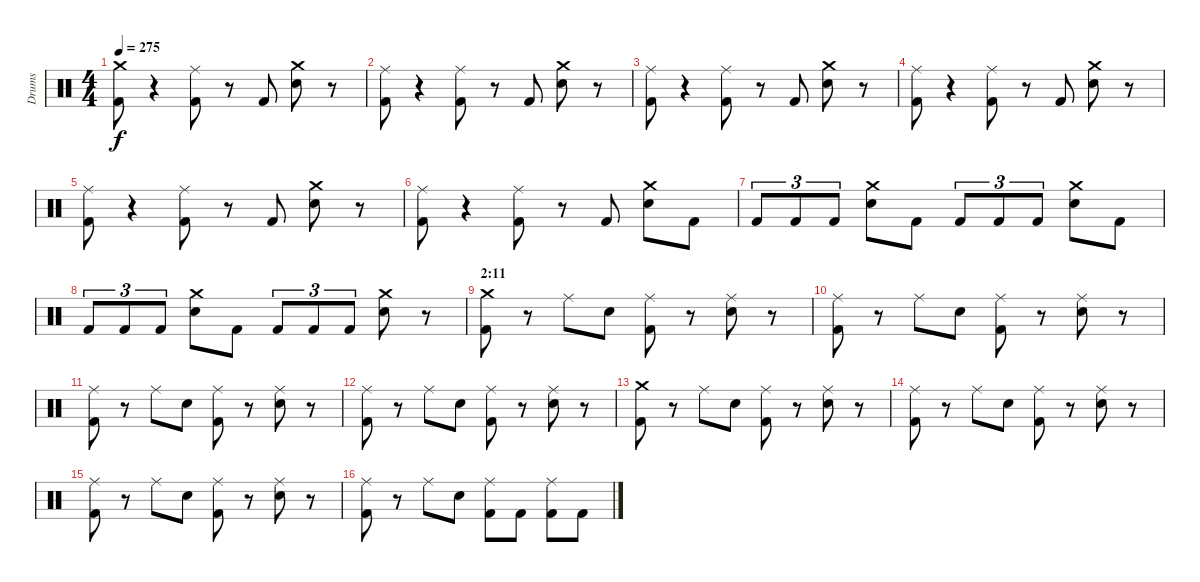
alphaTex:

\track ("Drums" "Drums") {instrument percussion}
\staff {score}
\articulation defaults
\ts (4 4)
\tempo 275
\clef neutral
\ks c
("Crash medium (hit)" "Kick (hit) 2").8{dy f} r.4 ("Ride (middle)" "Kick (hit) 2").8 r.8 "Kick (hit) 2".8 ("Crash medium (hit)" "Electric Snare (hit)").8 r.8 |
("Ride (middle)" "Kick (hit) 2").8 r.4 ("Ride (middle)" "Kick (hit) 2").8 r.8 "Kick (hit) 2".8 ("Crash medium (hit)" "Electric Snare (hit)").8 r.8 |
("Ride (middle)" "Kick (hit) 2").8 r.4 ("Ride (middle)" "Kick (hit) 2").8 r.8 "Kick (hit) 2".8 ("Crash medium (hit)" "Electric Snare (hit)").8 r.8 |
("Ride (middle)" "Kick (hit) 2").8 r.4 ("Ride (middle)" "Kick (hit) 2").8 r.8 "Kick (hit) 2".8 ("Crash medium (hit)" "Electric Snare (hit)").8 r.8 |
("Ride (middle)" "Kick (hit) 2").8 r.4 ("Ride (middle)" "Kick (hit) 2").8 r.8 "Kick (hit) 2".8 ("Crash medium (hit)" "Electric Snare (hit)").8 r.8 |
("Ride (middle)" "Kick (hit) 2").8 r.4 ("Ride (middle)" "Kick (hit) 2").8 r.8 "Kick (hit) 2".8 ("Crash medium (hit)" "Electric Snare (hit)").8 "Kick (hit) 2".8 |
"Kick (hit) 2".8{tu (3 2)} "Kick (hit) 2".8{tu (3 2)} "Kick (hit) 2".8{tu (3 2)} ("Crash medium (hit)" "Electric Snare (hit)").8 "Kick (hit) 2".8 "Kick (hit) 2".8{tu (3 2)} "Kick (hit) 2".8{tu (3 2)} "Kick (hit) 2".8{tu (3 2)} ("Crash medium (hit)" "Electric Snare (hit)").8 "Kick (hit) 2".8 |
"Kick (hit) 2".8{tu (3 2)} "Kick (hit) 2".8{tu (3 2)} "Kick (hit) 2".8{tu (3 2)} ("Crash medium (hit)" "Electric Snare (hit)").8 "Kick (hit) 2".8 "Kick (hit) 2".8{tu (3 2)} "Kick (hit) 2".8{tu (3 2)} "Kick (hit) 2".8{tu (3 2)} ("Crash medium (hit)" "Electric Snare (hit)").8 r.8 |
\section ("" "2:11")
("Crash medium (hit)" "Kick (hit) 2").8 r.8 "Ride (middle)".8 "Electric Snare (hit)".8 ("Ride (middle)" "Kick (hit) 2").8 r.8 ("Ride (middle)" "Electric Snare (hit)").8 r.8 |
("Ride (middle)" "Kick (hit) 2").8 r.8 "Ride (middle)".8 "Electric Snare (hit)".8 ("Ride (middle)" "Kick (hit) 2").8 r.8 ("Ride (middle)" "Electric Snare (hit)").8 r.8 |
("Ride (middle)" "Kick (hit) 2").8 r.8 "Ride (middle)".8 "Electric Snare (hit)".8 ("Ride (middle)" "Kick (hit) 2").8 r.8 ("Ride (middle)" "Electric Snare (hit)").8 r.8 |
("Ride (middle)" "Kick (hit) 2").8 r.8 "Ride (middle)".8 "Electric Snare (hit)".8 ("Ride (middle)" "Kick (hit) 2").8 r.8 ("Ride (middle)" "Electric Snare (hit)").8 r.8 |
("Crash medium (hit)" "Kick (hit) 2").8 r.8 "Ride (middle)".8 "Electric Snare (hit)".8 ("Ride (middle)" "Kick (hit) 2").8 r.8 ("Ride (middle)" "Electric Snare (hit)").8 r.8 |
("Ride (middle)" "Kick (hit) 2").8 r.8 "Ride (middle)".8 "Electric Snare (hit)".8 ("Ride (middle)" "Kick (hit) 2").8 r.8 ("Ride (middle)" "Electric Snare (hit)").8 r.8 |
("Ride (middle)" "Kick (hit) 2").8 r.8 "Ride (middle)".8 "Electric Snare (hit)".8 ("Ride (middle)" "Kick (hit) 2").8 r.8 ("Ride (middle)" "Electric Snare (hit)").8 r.8 |
("Ride (middle)" "Kick (hit) 2").8 r.8 "Ride (middle)".8 "Electric Snare (hit)".8 ("Ride (middle)" "Kick (hit) 2").8 "Kick (hit) 2".8 ("Ride (middle)" "Kick (hit) 2").8 "Kick (hit) 2".8
